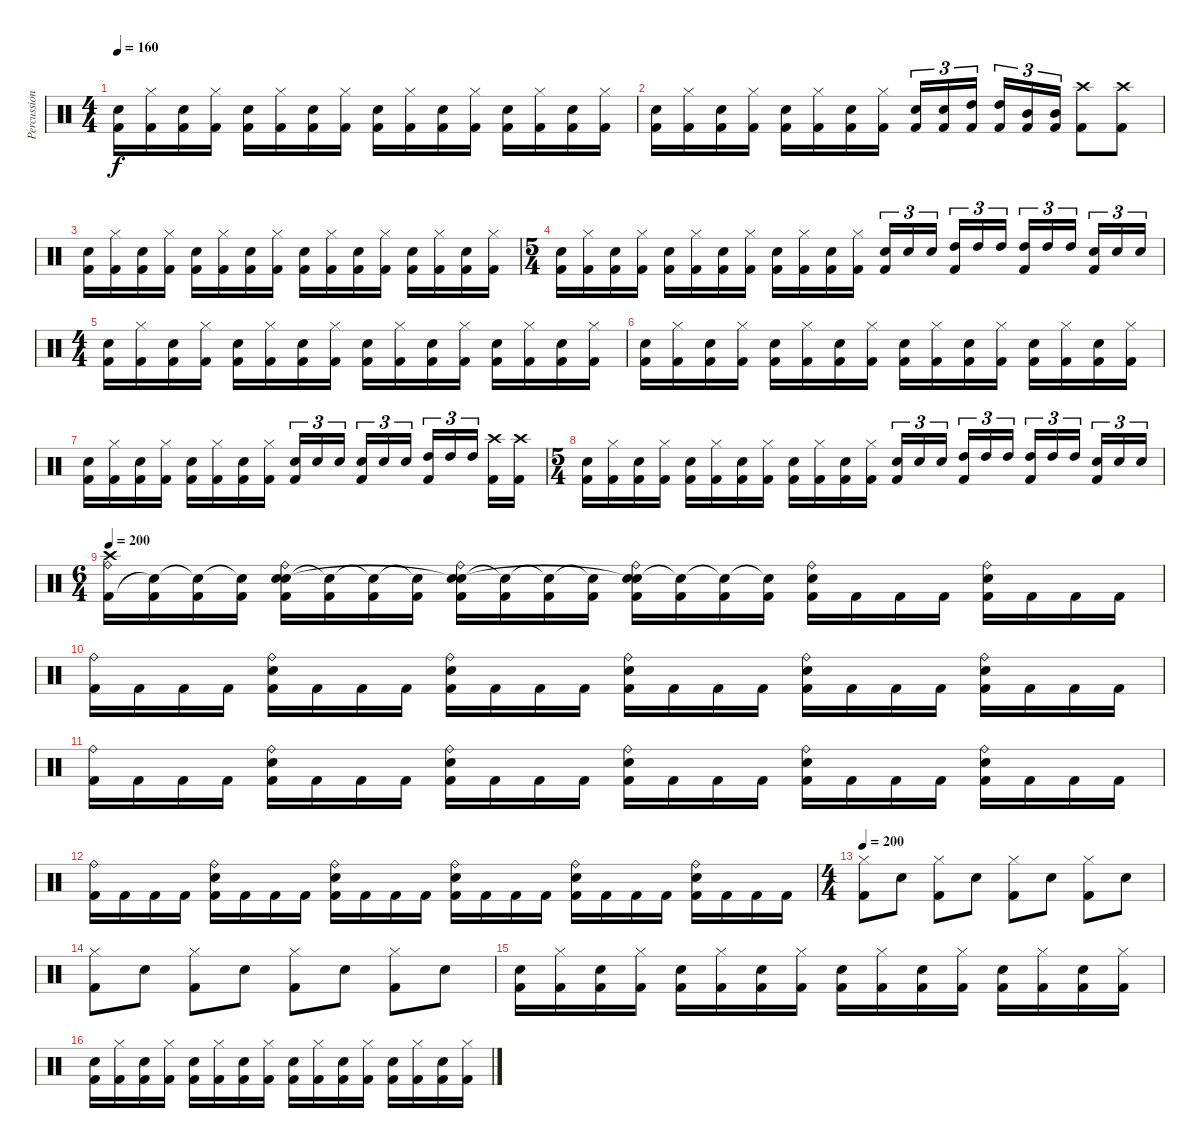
\track ("Percussion" "Percussion") {instrument percussion}
\staff {score}
\articulation defaults
\ts (4 4)
\tempo 160
\clef neutral
\ks c
("Snare (hit) 2" "Kick (hit) 2").16{dy f} ("Hi-Hat (closed)" "Kick (hit) 2").16 ("Snare (hit) 2" "Kick (hit) 2").16 ("Hi-Hat (closed)" "Kick (hit) 2").16 ("Snare (hit) 2" "Kick (hit) 2").16 ("Hi-Hat (closed)" "Kick (hit) 2").16 ("Snare (hit) 2" "Kick (hit) 2").16 ("Hi-Hat (closed)" "Kick (hit) 2").16 ("Snare (hit) 2" "Kick (hit) 2").16 ("Hi-Hat (closed)" "Kick (hit) 2").16 ("Snare (hit) 2" "Kick (hit) 2").16 ("Hi-Hat (closed)" "Kick (hit) 2").16 ("Snare (hit) 2" "Kick (hit) 2").16 ("Hi-Hat (closed)" "Kick (hit) 2").16 ("Snare (hit) 2" "Kick (hit) 2").16 ("Hi-Hat (closed)" "Kick (hit) 2").16 |
("Snare (hit) 2" "Kick (hit) 2").16 ("Hi-Hat (closed)" "Kick (hit) 2").16 ("Snare (hit) 2" "Kick (hit) 2").16 ("Hi-Hat (closed)" "Kick (hit) 2").16 ("Snare (hit) 2" "Kick (hit) 2").16 ("Hi-Hat (closed)" "Kick (hit) 2").16 ("Snare (hit) 2" "Kick (hit) 2").16 ("Hi-Hat (closed)" "Kick (hit) 2").16 ("Snare (hit) 2" "Kick (hit) 2").16{tu (3 2)} ("Snare (hit) 2" "Kick (hit) 2").16{tu (3 2)} ("High Tom (hit)" "Kick (hit) 2").16{tu (3 2)} ("High Tom (hit)" "Kick (hit) 2").16{tu (3 2)} ("Mid Tom (hit)" "Kick (hit) 2").16{tu (3 2)} ("Mid Tom (hit)" "Kick (hit) 2").16{tu (3 2)} ("Crash high (hit)" "Kick (hit) 2").8 ("Crash high (hit)" "Kick (hit) 2").8 |
("Snare (hit) 2" "Kick (hit) 2").16 ("Hi-Hat (closed)" "Kick (hit) 2").16 ("Snare (hit) 2" "Kick (hit) 2").16 ("Hi-Hat (closed)" "Kick (hit) 2").16 ("Snare (hit) 2" "Kick (hit) 2").16 ("Hi-Hat (closed)" "Kick (hit) 2").16 ("Snare (hit) 2" "Kick (hit) 2").16 ("Hi-Hat (closed)" "Kick (hit) 2").16 ("Snare (hit) 2" "Kick (hit) 2").16 ("Hi-Hat (closed)" "Kick (hit) 2").16 ("Snare (hit) 2" "Kick (hit) 2").16 ("Hi-Hat (closed)" "Kick (hit) 2").16 ("Snare (hit) 2" "Kick (hit) 2").16 ("Hi-Hat (closed)" "Kick (hit) 2").16 ("Snare (hit) 2" "Kick (hit) 2").16 ("Hi-Hat (closed)" "Kick (hit) 2").16 |
\ts (5 4)
("Snare (hit) 2" "Kick (hit) 2").16 ("Hi-Hat (closed)" "Kick (hit) 2").16 ("Snare (hit) 2" "Kick (hit) 2").16 ("Hi-Hat (closed)" "Kick (hit) 2").16 ("Snare (hit) 2" "Kick (hit) 2").16 ("Hi-Hat (closed)" "Kick (hit) 2").16 ("Snare (hit) 2" "Kick (hit) 2").16 ("Hi-Hat (closed)" "Kick (hit) 2").16 ("Snare (hit) 2" "Kick (hit) 2").16 ("Hi-Hat (closed)" "Kick (hit) 2").16 ("Snare (hit) 2" "Kick (hit) 2").16 ("Hi-Hat (closed)" "Kick (hit) 2").16 ("Snare (hit) 2" "Kick (hit) 2").16{tu (3 2)} "Snare (hit) 2".16{tu (3 2)} "Snare (hit) 2".16{tu (3 2)} ("High Tom (hit)" "Kick (hit) 2").16{tu (3 2)} "High Tom (hit)".16{tu (3 2)} "High Tom (hit)".16{tu (3 2)} ("High Tom (hit)" "Kick (hit) 2").16{tu (3 2)} "High Tom (hit)".16{tu (3 2)} "High Tom (hit)".16{tu (3 2)} ("Snare (hit) 2" "Kick (hit) 2").16{tu (3 2)} "Snare (hit) 2".16{tu (3 2)} "Snare (hit) 2".16{tu (3 2)} |
\ts (4 4)
("Snare (hit) 2" "Kick (hit) 2").16 ("Hi-Hat (closed)" "Kick (hit) 2").16 ("Snare (hit) 2" "Kick (hit) 2").16 ("Hi-Hat (closed)" "Kick (hit) 2").16 ("Snare (hit) 2" "Kick (hit) 2").16 ("Hi-Hat (closed)" "Kick (hit) 2").16 ("Snare (hit) 2" "Kick (hit) 2").16 ("Hi-Hat (closed)" "Kick (hit) 2").16 ("Snare (hit) 2" "Kick (hit) 2").16 ("Hi-Hat (closed)" "Kick (hit) 2").16 ("Snare (hit) 2" "Kick (hit) 2").16 ("Hi-Hat (closed)" "Kick (hit) 2").16 ("Snare (hit) 2" "Kick (hit) 2").16 ("Hi-Hat (closed)" "Kick (hit) 2").16 ("Snare (hit) 2" "Kick (hit) 2").16 ("Hi-Hat (closed)" "Kick (hit) 2").16 |
("Snare (hit) 2" "Kick (hit) 2").16 ("Hi-Hat (closed)" "Kick (hit) 2").16 ("Snare (hit) 2" "Kick (hit) 2").16 ("Hi-Hat (closed)" "Kick (hit) 2").16 ("Snare (hit) 2" "Kick (hit) 2").16 ("Hi-Hat (closed)" "Kick (hit) 2").16 ("Snare (hit) 2" "Kick (hit) 2").16 ("Hi-Hat (closed)" "Kick (hit) 2").16 ("Snare (hit) 2" "Kick (hit) 2").16 ("Hi-Hat (closed)" "Kick (hit) 2").16 ("Snare (hit) 2" "Kick (hit) 2").16 ("Hi-Hat (closed)" "Kick (hit) 2").16 ("Snare (hit) 2" "Kick (hit) 2").16 ("Hi-Hat (closed)" "Kick (hit) 2").16 ("Snare (hit) 2" "Kick (hit) 2").16 ("Hi-Hat (closed)" "Kick (hit) 2").16 |
("Snare (hit) 2" "Kick (hit) 2").16 ("Hi-Hat (closed)" "Kick (hit) 2").16 ("Snare (hit) 2" "Kick (hit) 2").16 ("Hi-Hat (closed)" "Kick (hit) 2").16 ("Snare (hit) 2" "Kick (hit) 2").16 ("Hi-Hat (closed)" "Kick (hit) 2").16 ("Snare (hit) 2" "Kick (hit) 2").16 ("Hi-Hat (closed)" "Kick (hit) 2").16 ("Snare (hit) 2" "Kick (hit) 2").16{tu (3 2)} "Snare (hit) 2".16{tu (3 2)} "Snare (hit) 2".16{tu (3 2)} ("Snare (hit) 2" "Kick (hit) 2").16{tu (3 2)} "Snare (hit) 2".16{tu (3 2)} "Snare (hit) 2".16{tu (3 2)} ("High Tom (hit)" "Kick (hit) 2").16{tu (3 2)} "High Tom (hit)".16{tu (3 2)} "High Tom (hit)".16{tu (3 2)} ("Crash high (hit)" "Kick (hit) 2").16 ("Crash high (hit)" "Kick (hit) 2").16 |
\ts (5 4)
("Snare (hit) 2" "Kick (hit) 2").16 ("Hi-Hat (closed)" "Kick (hit) 2").16 ("Snare (hit) 2" "Kick (hit) 2").16 ("Hi-Hat (closed)" "Kick (hit) 2").16 ("Snare (hit) 2" "Kick (hit) 2").16 ("Hi-Hat (closed)" "Kick (hit) 2").16 ("Snare (hit) 2" "Kick (hit) 2").16 ("Hi-Hat (closed)" "Kick (hit) 2").16 ("Snare (hit) 2" "Kick (hit) 2").16 ("Hi-Hat (closed)" "Kick (hit) 2").16 ("Snare (hit) 2" "Kick (hit) 2").16 ("Hi-Hat (closed)" "Kick (hit) 2").16 ("Snare (hit) 2" "Kick (hit) 2").16{tu (3 2)} "Snare (hit) 2".16{tu (3 2)} "Snare (hit) 2".16{tu (3 2)} ("High Tom (hit)" "Kick (hit) 2").16{tu (3 2)} "High Tom (hit)".16{tu (3 2)} "High Tom (hit)".16{tu (3 2)} ("High Tom (hit)" "Kick (hit) 2").16{tu (3 2)} "High Tom (hit)".16{tu (3 2)} "High Tom (hit)".16{tu (3 2)} ("Snare (hit) 2" "Kick (hit) 2").16{tu (3 2)} "Snare (hit) 2".16{tu (3 2)} "Snare (hit) 2".16{tu (3 2)} |
\ts (6 4)
\tempo 200
("Ride (bell)" "Kick (hit) 2" "Crash high (hit)").16 ("Kick (hit) 2" "Snare (hit)"{t}).16 ("Kick (hit) 2" "Snare (hit)"{t}).16 ("Kick (hit) 2" "Snare (hit)"{t}).16 ("Ride (bell)" "Snare (hit) 2" "Kick (hit) 2" "Snare (hit)").16 ("Kick (hit) 2" "Snare (hit)"{t}).16 ("Kick (hit) 2" "Snare (hit)"{t}).16 ("Kick (hit) 2" "Snare (hit)"{t}).16 ("Ride (bell)" "Snare (hit) 2" "Kick (hit) 2" "Snare (hit)"{t}).16 ("Kick (hit) 2" "Snare (hit)"{t}).16 ("Kick (hit) 2" "Snare (hit)"{t}).16 ("Kick (hit) 2" "Snare (hit)"{t}).16 ("Ride (bell)" "Snare (hit) 2" "Kick (hit) 2" "Snare (hit)"{t}).16 ("Kick (hit) 2" "Snare (hit)"{t}).16 ("Kick (hit) 2" "Snare (hit)"{t}).16 ("Kick (hit) 2" "Snare (hit)"{t}).16 ("Ride (bell)" "Snare (hit) 2" "Kick (hit) 2").16 "Kick (hit) 2".16 "Kick (hit) 2".16 "Kick (hit) 2".16 ("Ride (bell)" "Snare (hit) 2" "Kick (hit) 2").16 "Kick (hit) 2".16 "Kick (hit) 2".16 "Kick (hit) 2".16 |
("Ride (bell)" "Kick (hit) 2").16 "Kick (hit) 2".16 "Kick (hit) 2".16 "Kick (hit) 2".16 ("Ride (bell)" "Snare (hit) 2" "Kick (hit) 2").16 "Kick (hit) 2".16 "Kick (hit) 2".16 "Kick (hit) 2".16 ("Ride (bell)" "Snare (hit) 2" "Kick (hit) 2").16 "Kick (hit) 2".16 "Kick (hit) 2".16 "Kick (hit) 2".16 ("Ride (bell)" "Snare (hit) 2" "Kick (hit) 2").16 "Kick (hit) 2".16 "Kick (hit) 2".16 "Kick (hit) 2".16 ("Ride (bell)" "Snare (hit) 2" "Kick (hit) 2").16 "Kick (hit) 2".16 "Kick (hit) 2".16 "Kick (hit) 2".16 ("Ride (bell)" "Snare (hit) 2" "Kick (hit) 2").16 "Kick (hit) 2".16 "Kick (hit) 2".16 "Kick (hit) 2".16 |
("Ride (bell)" "Kick (hit) 2").16 "Kick (hit) 2".16 "Kick (hit) 2".16 "Kick (hit) 2".16 ("Ride (bell)" "Snare (hit) 2" "Kick (hit) 2").16 "Kick (hit) 2".16 "Kick (hit) 2".16 "Kick (hit) 2".16 ("Ride (bell)" "Snare (hit) 2" "Kick (hit) 2").16 "Kick (hit) 2".16 "Kick (hit) 2".16 "Kick (hit) 2".16 ("Ride (bell)" "Snare (hit) 2" "Kick (hit) 2").16 "Kick (hit) 2".16 "Kick (hit) 2".16 "Kick (hit) 2".16 ("Ride (bell)" "Snare (hit) 2" "Kick (hit) 2").16 "Kick (hit) 2".16 "Kick (hit) 2".16 "Kick (hit) 2".16 ("Ride (bell)" "Snare (hit) 2" "Kick (hit) 2").16 "Kick (hit) 2".16 "Kick (hit) 2".16 "Kick (hit) 2".16 |
("Ride (bell)" "Kick (hit) 2").16 "Kick (hit) 2".16 "Kick (hit) 2".16 "Kick (hit) 2".16 ("Ride (bell)" "Snare (hit) 2" "Kick (hit) 2").16 "Kick (hit) 2".16 "Kick (hit) 2".16 "Kick (hit) 2".16 ("Ride (bell)" "Snare (hit) 2" "Kick (hit) 2").16 "Kick (hit) 2".16 "Kick (hit) 2".16 "Kick (hit) 2".16 ("Ride (bell)" "Snare (hit) 2" "Kick (hit) 2").16 "Kick (hit) 2".16 "Kick (hit) 2".16 "Kick (hit) 2".16 ("Ride (bell)" "Snare (hit) 2" "Kick (hit) 2").16 "Kick (hit) 2".16 "Kick (hit) 2".16 "Kick (hit) 2".16 ("Ride (bell)" "Snare (hit) 2" "Kick (hit) 2").16 "Kick (hit) 2".16 "Kick (hit) 2".16 "Kick (hit) 2".16 |
\ts (4 4)
\tempo 200
("Hi-Hat (closed)" "Kick (hit) 2").8 "Snare (hit) 2".8 ("Hi-Hat (closed)" "Kick (hit) 2").8 "Snare (hit) 2".8 ("Hi-Hat (closed)" "Kick (hit) 2").8 "Snare (hit) 2".8 ("Hi-Hat (closed)" "Kick (hit) 2").8 "Snare (hit) 2".8 |
("Hi-Hat (closed)" "Kick (hit) 2").8 "Snare (hit) 2".8 ("Hi-Hat (closed)" "Kick (hit) 2").8 "Snare (hit) 2".8 ("Hi-Hat (closed)" "Kick (hit) 2").8 "Snare (hit) 2".8 ("Hi-Hat (closed)" "Kick (hit) 2").8 "Snare (hit) 2".8 |
("Snare (hit) 2" "Kick (hit) 2").16 ("Hi-Hat (closed)" "Kick (hit) 2").16 ("Snare (hit) 2" "Kick (hit) 2").16 ("Hi-Hat (closed)" "Kick (hit) 2").16 ("Snare (hit) 2" "Kick (hit) 2").16 ("Hi-Hat (closed)" "Kick (hit) 2").16 ("Snare (hit) 2" "Kick (hit) 2").16 ("Hi-Hat (closed)" "Kick (hit) 2").16 ("Snare (hit) 2" "Kick (hit) 2").16 ("Hi-Hat (closed)" "Kick (hit) 2").16 ("Snare (hit) 2" "Kick (hit) 2").16 ("Hi-Hat (closed)" "Kick (hit) 2").16 ("Snare (hit) 2" "Kick (hit) 2").16 ("Hi-Hat (closed)" "Kick (hit) 2").16 ("Snare (hit) 2" "Kick (hit) 2").16 ("Hi-Hat (closed)" "Kick (hit) 2").16 |
("Snare (hit) 2" "Kick (hit) 2").16 ("Hi-Hat (closed)" "Kick (hit) 2").16 ("Snare (hit) 2" "Kick (hit) 2").16 ("Hi-Hat (closed)" "Kick (hit) 2").16 ("Snare (hit) 2" "Kick (hit) 2").16 ("Hi-Hat (closed)" "Kick (hit) 2").16 ("Snare (hit) 2" "Kick (hit) 2").16 ("Hi-Hat (closed)" "Kick (hit) 2").16 ("Snare (hit) 2" "Kick (hit) 2").16 ("Hi-Hat (closed)" "Kick (hit) 2").16 ("Snare (hit) 2" "Kick (hit) 2").16 ("Hi-Hat (closed)" "Kick (hit) 2").16 ("Snare (hit) 2" "Kick (hit) 2").16 ("Hi-Hat (closed)" "Kick (hit) 2").16 ("Snare (hit) 2" "Kick (hit) 2").16 ("Hi-Hat (closed)" "Kick (hit) 2").16
